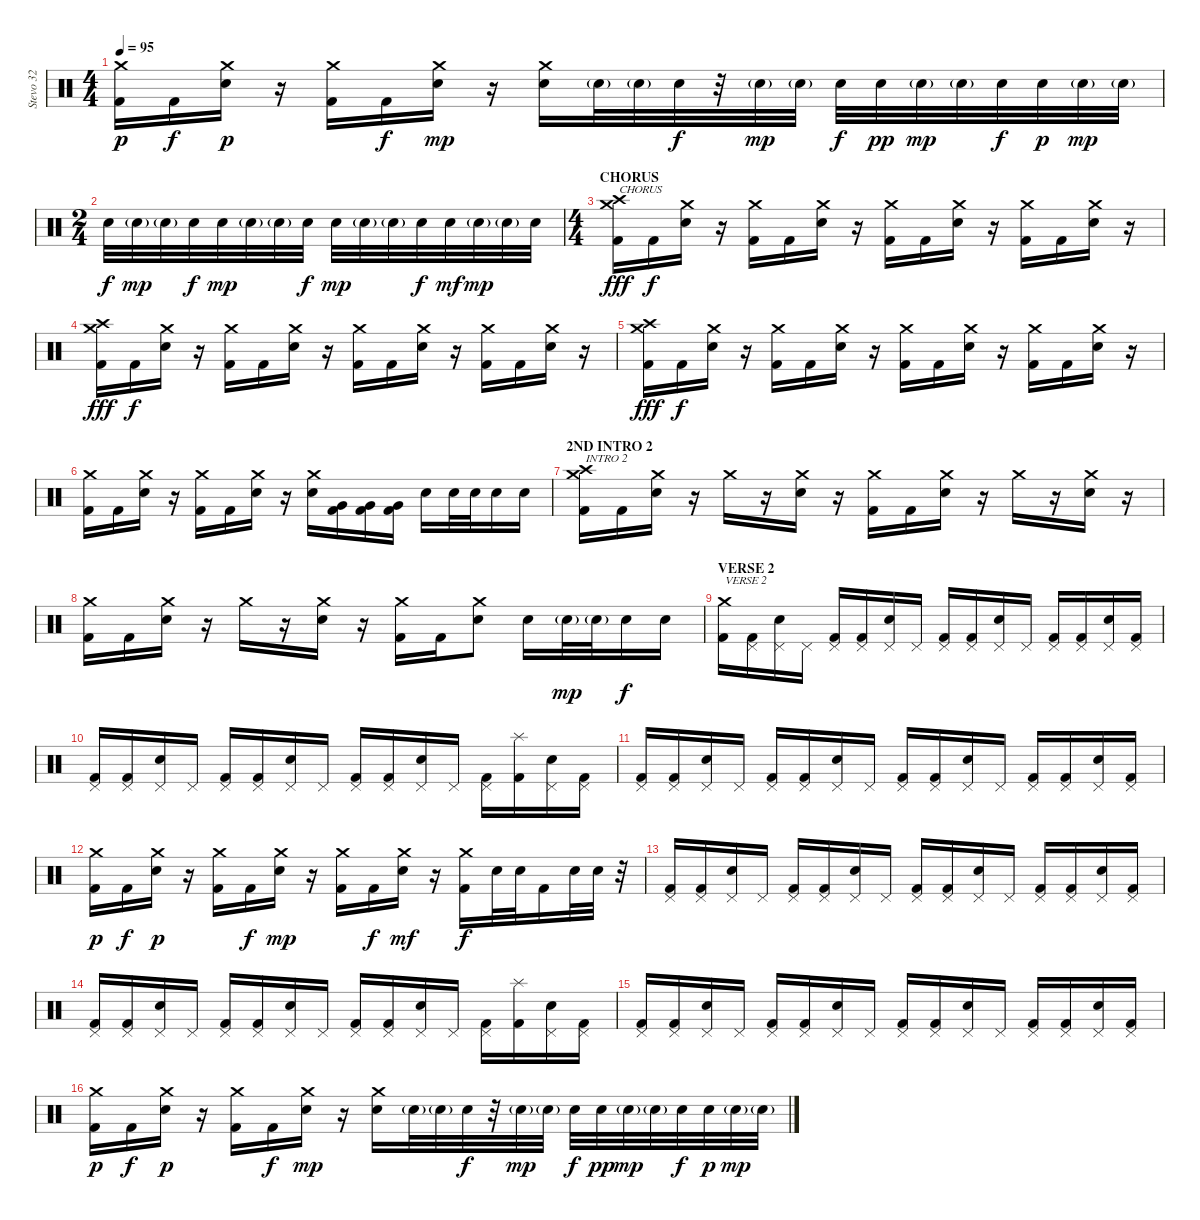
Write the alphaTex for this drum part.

\track ("Stevo 32" "Stevo 32") {instrument percussion}
\staff {score}
\articulation defaults
\ts (4 4)
\tempo 95
\clef neutral
\ks c
("Crash medium (hit)" "Kick (hit) 2").16{dy p} "Kick (hit) 2".16{dy f} ("Crash medium (hit)" "Electric Snare (hit)").16{dy p} r.16 ("Crash medium (hit)" "Kick (hit) 2").16 "Kick (hit) 2".16{dy f} ("Crash medium (hit)" "Electric Snare (hit)").16{dy mp} r.16 ("Crash medium (hit)" "Electric Snare (hit)").16 "Electric Snare (hit)"{g}.32 "Electric Snare (hit)"{g}.32 "Electric Snare (hit)".32{dy f} r.32 "Electric Snare (hit)"{g}.32{dy mp} "Electric Snare (hit)"{g}.32 "Electric Snare (hit)".32{dy f} "Electric Snare (hit)".32{dy pp} "Electric Snare (hit)"{g}.32{dy mp} "Electric Snare (hit)"{g}.32 "Electric Snare (hit)".32{dy f} "Electric Snare (hit)".32{dy p} "Electric Snare (hit)"{g}.32{dy mp} "Electric Snare (hit)"{g}.32 |
\ts (2 4)
"Electric Snare (hit)".32{dy f} "Electric Snare (hit)"{g}.32{dy mp} "Electric Snare (hit)"{g}.32 "Electric Snare (hit)".32{dy f} "Electric Snare (hit)".32{dy mp} "Electric Snare (hit)"{g}.32 "Electric Snare (hit)"{g}.32 "Electric Snare (hit)".32{dy f} "Electric Snare (hit)".32{dy mp} "Electric Snare (hit)"{g}.32 "Electric Snare (hit)"{g}.32 "Electric Snare (hit)".32{dy f} "Electric Snare (hit)".32{dy mf} "Electric Snare (hit)"{g}.32{dy mp} "Electric Snare (hit)"{g}.32 "Electric Snare (hit)".32 |
\ts (4 4)
\section ("" "CHORUS")
("Crash high (hit)" "Crash medium (hit)" "Kick (hit) 2").16{txt "CHORUS" dy fff} "Kick (hit) 2".16{dy f} ("Crash medium (hit)" "Electric Snare (hit)").16 r.16 ("Crash medium (hit)" "Kick (hit) 2").16 "Kick (hit) 2".16 ("Crash medium (hit)" "Electric Snare (hit)").16 r.16 ("Crash medium (hit)" "Kick (hit) 2").16 "Kick (hit) 2".16 ("Crash medium (hit)" "Electric Snare (hit)").16 r.16 ("Crash medium (hit)" "Kick (hit) 2").16 "Kick (hit) 2".16 ("Crash medium (hit)" "Electric Snare (hit)").16 r.16 |
("Crash high (hit)" "Crash medium (hit)" "Kick (hit) 2").16{dy fff} "Kick (hit) 2".16{dy f} ("Crash medium (hit)" "Electric Snare (hit)").16 r.16 ("Crash medium (hit)" "Kick (hit) 2").16 "Kick (hit) 2".16 ("Crash medium (hit)" "Electric Snare (hit)").16 r.16 ("Crash medium (hit)" "Kick (hit) 2").16 "Kick (hit) 2".16 ("Crash medium (hit)" "Electric Snare (hit)").16 r.16 ("Crash medium (hit)" "Kick (hit) 2").16 "Kick (hit) 2".16 ("Crash medium (hit)" "Electric Snare (hit)").16 r.16 |
("Crash high (hit)" "Crash medium (hit)" "Kick (hit) 2").16{dy fff} "Kick (hit) 2".16{dy f} ("Crash medium (hit)" "Electric Snare (hit)").16 r.16 ("Crash medium (hit)" "Kick (hit) 2").16 "Kick (hit) 2".16 ("Crash medium (hit)" "Electric Snare (hit)").16 r.16 ("Crash medium (hit)" "Kick (hit) 2").16 "Kick (hit) 2".16 ("Crash medium (hit)" "Electric Snare (hit)").16 r.16 ("Crash medium (hit)" "Kick (hit) 2").16 "Kick (hit) 2".16 ("Crash medium (hit)" "Electric Snare (hit)").16 r.16 |
("Crash medium (hit)" "Kick (hit) 2").16 "Kick (hit) 2".16 ("Crash medium (hit)" "Electric Snare (hit)").16 r.16 ("Crash medium (hit)" "Kick (hit) 2").16 "Kick (hit) 2".16 ("Crash medium (hit)" "Electric Snare (hit)").16 r.16 ("Crash medium (hit)" "Electric Snare (hit)").16 ("Very Low Tom (hit)" "Kick (hit) 2").16 ("Very Low Tom (hit)" "Kick (hit) 2").16 ("Very Low Tom (hit)" "Kick (hit) 2").16 "Electric Snare (hit)".16 "Electric Snare (hit)".32 "Electric Snare (hit)".32 "Electric Snare (hit)".16 "Electric Snare (hit)".16 |
\section ("" "2ND INTRO 2")
("Crash high (hit)" "Crash medium (hit)" "Kick (hit) 2").16{txt "INTRO 2"} "Kick (hit) 2".16 ("Crash medium (hit)" "Electric Snare (hit)").16 r.16 "Crash medium (hit)".16 r.16 ("Crash medium (hit)" "Electric Snare (hit)").16 r.16 ("Crash medium (hit)" "Kick (hit) 2").16 "Kick (hit) 2".16 ("Crash medium (hit)" "Electric Snare (hit)").16 r.16 "Crash medium (hit)".16 r.16 ("Crash medium (hit)" "Electric Snare (hit)").16 r.16 |
("Crash medium (hit)" "Kick (hit) 2").16 "Kick (hit) 2".16 ("Crash medium (hit)" "Electric Snare (hit)").16 r.16 "Crash medium (hit)".16 r.16 ("Crash medium (hit)" "Electric Snare (hit)").16 r.16 ("Crash medium (hit)" "Kick (hit) 2").16 "Kick (hit) 2".16 ("Crash medium (hit)" "Electric Snare (hit)").8 "Electric Snare (hit)".16 "Electric Snare (hit)"{g}.32{dy mp} "Electric Snare (hit)"{g}.32 "Electric Snare (hit)".16{dy f} "Electric Snare (hit)".16 |
\section ("" "VERSE 2")
("Crash medium (hit)" "Kick (hit) 2").16{txt "VERSE 2"} ("Pedal Hi-Hat (hit)" "Kick (hit) 2").16 ("Pedal Hi-Hat (hit)" "Electric Snare (hit)").16 "Pedal Hi-Hat (hit)".16 ("Pedal Hi-Hat (hit)" "Kick (hit) 2").16 ("Pedal Hi-Hat (hit)" "Kick (hit) 2").16 ("Pedal Hi-Hat (hit)" "Electric Snare (hit)").16 "Pedal Hi-Hat (hit)".16 ("Pedal Hi-Hat (hit)" "Kick (hit) 2").16 ("Pedal Hi-Hat (hit)" "Kick (hit) 2").16 ("Pedal Hi-Hat (hit)" "Electric Snare (hit)").16 "Pedal Hi-Hat (hit)".16 ("Pedal Hi-Hat (hit)" "Kick (hit) 2").16 ("Pedal Hi-Hat (hit)" "Kick (hit) 2").16 ("Pedal Hi-Hat (hit)" "Electric Snare (hit)").16 ("Pedal Hi-Hat (hit)" "Kick (hit) 2").16 |
("Pedal Hi-Hat (hit)" "Kick (hit) 2").16 ("Pedal Hi-Hat (hit)" "Kick (hit) 2").16 ("Pedal Hi-Hat (hit)" "Electric Snare (hit)").16 "Pedal Hi-Hat (hit)".16 ("Pedal Hi-Hat (hit)" "Kick (hit) 2").16 ("Pedal Hi-Hat (hit)" "Kick (hit) 2").16 ("Pedal Hi-Hat (hit)" "Electric Snare (hit)").16 "Pedal Hi-Hat (hit)".16 ("Pedal Hi-Hat (hit)" "Kick (hit) 2").16 ("Pedal Hi-Hat (hit)" "Kick (hit) 2").16 ("Pedal Hi-Hat (hit)" "Electric Snare (hit)").16 "Pedal Hi-Hat (hit)".16 ("Pedal Hi-Hat (hit)" "Kick (hit) 2").16 ("Splash (hit)" "Kick (hit) 2").16 ("Pedal Hi-Hat (hit)" "Electric Snare (hit)").16 ("Pedal Hi-Hat (hit)" "Kick (hit) 2").16 |
("Pedal Hi-Hat (hit)" "Kick (hit) 2").16 ("Pedal Hi-Hat (hit)" "Kick (hit) 2").16 ("Pedal Hi-Hat (hit)" "Electric Snare (hit)").16 "Pedal Hi-Hat (hit)".16 ("Pedal Hi-Hat (hit)" "Kick (hit) 2").16 ("Pedal Hi-Hat (hit)" "Kick (hit) 2").16 ("Pedal Hi-Hat (hit)" "Electric Snare (hit)").16 "Pedal Hi-Hat (hit)".16 ("Pedal Hi-Hat (hit)" "Kick (hit) 2").16 ("Pedal Hi-Hat (hit)" "Kick (hit) 2").16 ("Pedal Hi-Hat (hit)" "Electric Snare (hit)").16 "Pedal Hi-Hat (hit)".16 ("Pedal Hi-Hat (hit)" "Kick (hit) 2").16 ("Pedal Hi-Hat (hit)" "Kick (hit) 2").16 ("Pedal Hi-Hat (hit)" "Electric Snare (hit)").16 ("Pedal Hi-Hat (hit)" "Kick (hit) 2").16 |
("Crash medium (hit)" "Kick (hit) 2").16{dy p} "Kick (hit) 2".16{dy f} ("Crash medium (hit)" "Electric Snare (hit)").16{dy p} r.16 ("Crash medium (hit)" "Kick (hit) 2").16 "Kick (hit) 2".16{dy f} ("Crash medium (hit)" "Electric Snare (hit)").16{dy mp} r.16 ("Crash medium (hit)" "Kick (hit) 2").16 "Kick (hit) 2".16{dy f} ("Crash medium (hit)" "Electric Snare (hit)").16{dy mf} r.16 ("Crash medium (hit)" "Kick (hit) 2").16{dy f} "Electric Snare (hit)".32 "Electric Snare (hit)".32 "Kick (hit) 2".16 "Electric Snare (hit)".32 "Electric Snare (hit)".32 r.32 |
("Pedal Hi-Hat (hit)" "Kick (hit) 2").16 ("Pedal Hi-Hat (hit)" "Kick (hit) 2").16 ("Pedal Hi-Hat (hit)" "Electric Snare (hit)").16 "Pedal Hi-Hat (hit)".16 ("Pedal Hi-Hat (hit)" "Kick (hit) 2").16 ("Pedal Hi-Hat (hit)" "Kick (hit) 2").16 ("Pedal Hi-Hat (hit)" "Electric Snare (hit)").16 "Pedal Hi-Hat (hit)".16 ("Pedal Hi-Hat (hit)" "Kick (hit) 2").16 ("Pedal Hi-Hat (hit)" "Kick (hit) 2").16 ("Pedal Hi-Hat (hit)" "Electric Snare (hit)").16 "Pedal Hi-Hat (hit)".16 ("Pedal Hi-Hat (hit)" "Kick (hit) 2").16 ("Pedal Hi-Hat (hit)" "Kick (hit) 2").16 ("Pedal Hi-Hat (hit)" "Electric Snare (hit)").16 ("Pedal Hi-Hat (hit)" "Kick (hit) 2").16 |
("Pedal Hi-Hat (hit)" "Kick (hit) 2").16 ("Pedal Hi-Hat (hit)" "Kick (hit) 2").16 ("Pedal Hi-Hat (hit)" "Electric Snare (hit)").16 "Pedal Hi-Hat (hit)".16 ("Pedal Hi-Hat (hit)" "Kick (hit) 2").16 ("Pedal Hi-Hat (hit)" "Kick (hit) 2").16 ("Pedal Hi-Hat (hit)" "Electric Snare (hit)").16 "Pedal Hi-Hat (hit)".16 ("Pedal Hi-Hat (hit)" "Kick (hit) 2").16 ("Pedal Hi-Hat (hit)" "Kick (hit) 2").16 ("Pedal Hi-Hat (hit)" "Electric Snare (hit)").16 "Pedal Hi-Hat (hit)".16 ("Pedal Hi-Hat (hit)" "Kick (hit) 2").16 ("Splash (hit)" "Kick (hit) 2").16 ("Pedal Hi-Hat (hit)" "Electric Snare (hit)").16 ("Pedal Hi-Hat (hit)" "Kick (hit) 2").16 |
("Pedal Hi-Hat (hit)" "Kick (hit) 2").16 ("Pedal Hi-Hat (hit)" "Kick (hit) 2").16 ("Pedal Hi-Hat (hit)" "Electric Snare (hit)").16 "Pedal Hi-Hat (hit)".16 ("Pedal Hi-Hat (hit)" "Kick (hit) 2").16 ("Pedal Hi-Hat (hit)" "Kick (hit) 2").16 ("Pedal Hi-Hat (hit)" "Electric Snare (hit)").16 "Pedal Hi-Hat (hit)".16 ("Pedal Hi-Hat (hit)" "Kick (hit) 2").16 ("Pedal Hi-Hat (hit)" "Kick (hit) 2").16 ("Pedal Hi-Hat (hit)" "Electric Snare (hit)").16 "Pedal Hi-Hat (hit)".16 ("Pedal Hi-Hat (hit)" "Kick (hit) 2").16 ("Pedal Hi-Hat (hit)" "Kick (hit) 2").16 ("Pedal Hi-Hat (hit)" "Electric Snare (hit)").16 ("Pedal Hi-Hat (hit)" "Kick (hit) 2").16 |
("Crash medium (hit)" "Kick (hit) 2").16{dy p} "Kick (hit) 2".16{dy f} ("Crash medium (hit)" "Electric Snare (hit)").16{dy p} r.16 ("Crash medium (hit)" "Kick (hit) 2").16 "Kick (hit) 2".16{dy f} ("Crash medium (hit)" "Electric Snare (hit)").16{dy mp} r.16 ("Crash medium (hit)" "Electric Snare (hit)").16 "Electric Snare (hit)"{g}.32 "Electric Snare (hit)"{g}.32 "Electric Snare (hit)".32{dy f} r.32 "Electric Snare (hit)"{g}.32{dy mp} "Electric Snare (hit)"{g}.32 "Electric Snare (hit)".32{dy f} "Electric Snare (hit)".32{dy pp} "Electric Snare (hit)"{g}.32{dy mp} "Electric Snare (hit)"{g}.32 "Electric Snare (hit)".32{dy f} "Electric Snare (hit)".32{dy p} "Electric Snare (hit)"{g}.32{dy mp} "Electric Snare (hit)"{g}.32
